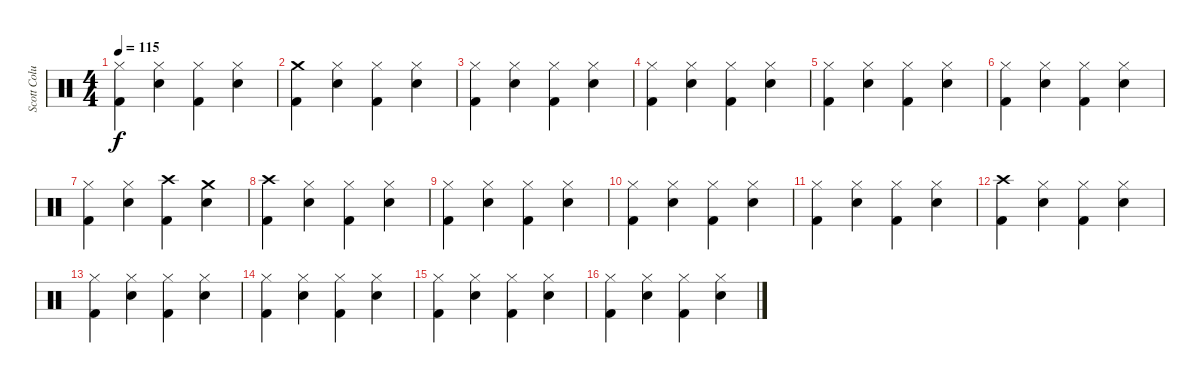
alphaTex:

\track ("Scott Columus(Drums)" "Scott Colu") {instrument percussion}
\staff {score}
\articulation defaults
\ts (4 4)
\tempo 115
\clef neutral
\ks c
("Hi-Hat (closed)" "Kick (hit) 2").4{dy f} ("Hi-Hat (closed)" "Snare (hit) 2").4 ("Hi-Hat (closed)" "Kick (hit) 2").4 ("Hi-Hat (closed)" "Snare (hit) 2").4 |
("Crash medium (hit)" "Kick (hit) 2").4 ("Hi-Hat (closed)" "Snare (hit) 2").4 ("Hi-Hat (closed)" "Kick (hit) 2").4 ("Hi-Hat (closed)" "Snare (hit) 2").4 |
("Hi-Hat (closed)" "Kick (hit) 2").4 ("Hi-Hat (closed)" "Snare (hit) 2").4 ("Hi-Hat (closed)" "Kick (hit) 2").4 ("Hi-Hat (closed)" "Snare (hit) 2").4 |
("Hi-Hat (closed)" "Kick (hit) 2").4 ("Hi-Hat (closed)" "Snare (hit) 2").4 ("Hi-Hat (closed)" "Kick (hit) 2").4 ("Hi-Hat (closed)" "Snare (hit) 2").4 |
("Hi-Hat (closed)" "Kick (hit) 2").4 ("Hi-Hat (closed)" "Snare (hit) 2").4 ("Hi-Hat (closed)" "Kick (hit) 2").4 ("Hi-Hat (closed)" "Snare (hit) 2").4 |
("Hi-Hat (closed)" "Kick (hit) 2").4 ("Hi-Hat (closed)" "Snare (hit) 2").4 ("Hi-Hat (closed)" "Kick (hit) 2").4 ("Hi-Hat (closed)" "Snare (hit) 2").4 |
("Hi-Hat (closed)" "Kick (hit) 2").4 ("Hi-Hat (closed)" "Snare (hit) 2").4 ("Crash high (hit)" "Kick (hit) 2").4 ("Crash medium (hit)" "Snare (hit) 2").4 |
("Crash high (hit)" "Kick (hit) 2").4 ("Hi-Hat (closed)" "Snare (hit) 2").4 ("Hi-Hat (closed)" "Kick (hit) 2").4 ("Hi-Hat (closed)" "Snare (hit) 2").4 |
("Hi-Hat (closed)" "Kick (hit) 2").4 ("Hi-Hat (closed)" "Snare (hit) 2").4 ("Hi-Hat (closed)" "Kick (hit) 2").4 ("Hi-Hat (closed)" "Snare (hit) 2").4 |
("Hi-Hat (closed)" "Kick (hit) 2").4 ("Hi-Hat (closed)" "Snare (hit) 2").4 ("Hi-Hat (closed)" "Kick (hit) 2").4 ("Hi-Hat (closed)" "Snare (hit) 2").4 |
("Hi-Hat (closed)" "Kick (hit) 2").4 ("Hi-Hat (closed)" "Snare (hit) 2").4 ("Hi-Hat (closed)" "Kick (hit) 2").4 ("Hi-Hat (closed)" "Snare (hit) 2").4 |
("Crash high (hit)" "Kick (hit) 2").4 ("Hi-Hat (closed)" "Snare (hit) 2").4 ("Hi-Hat (closed)" "Kick (hit) 2").4 ("Hi-Hat (closed)" "Snare (hit) 2").4 |
("Hi-Hat (closed)" "Kick (hit) 2").4 ("Hi-Hat (closed)" "Snare (hit) 2").4 ("Hi-Hat (closed)" "Kick (hit) 2").4 ("Hi-Hat (closed)" "Snare (hit) 2").4 |
("Hi-Hat (closed)" "Kick (hit) 2").4 ("Hi-Hat (closed)" "Snare (hit) 2").4 ("Hi-Hat (closed)" "Kick (hit) 2").4 ("Hi-Hat (closed)" "Snare (hit) 2").4 |
("Hi-Hat (closed)" "Kick (hit) 2").4 ("Hi-Hat (closed)" "Snare (hit) 2").4 ("Hi-Hat (closed)" "Kick (hit) 2").4 ("Hi-Hat (closed)" "Snare (hit) 2").4 |
("Hi-Hat (closed)" "Kick (hit) 2").4 ("Hi-Hat (closed)" "Snare (hit) 2").4 ("Hi-Hat (closed)" "Kick (hit) 2").4 ("Hi-Hat (closed)" "Snare (hit) 2").4
